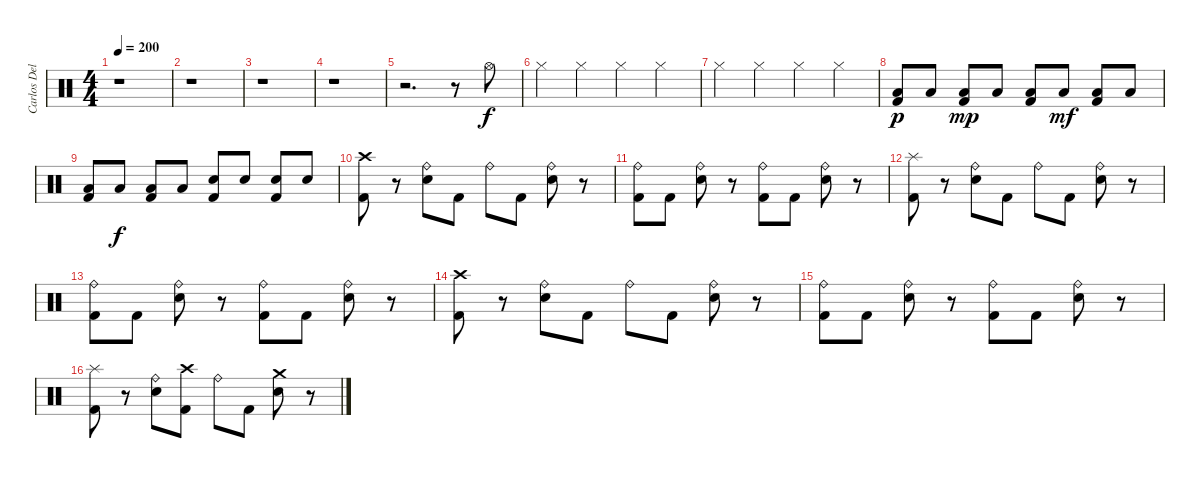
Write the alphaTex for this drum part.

\track ("Carlos Delgado" "Carlos Del") {instrument percussion}
\staff {score}
\articulation defaults
\ts (4 4)
\tempo 200
\clef neutral
\ks c
r.1{dy f} |
r.1 |
r.1 |
r.1 |
r.2{d} r.8 "Hi-Hat (open)".8 |
"Hi-Hat (closed)".4 "Hi-Hat (closed)".4 "Hi-Hat (closed)".4 "Hi-Hat (closed)".4 |
"Hi-Hat (closed)".4 "Hi-Hat (closed)".4 "Hi-Hat (closed)".4 "Hi-Hat (closed)".4 |
("Kick (hit) 2" "Low Floor Tom (hit)").8{dy p} "Low Floor Tom (hit)".8 ("Kick (hit) 2" "Low Floor Tom (hit)").8{dy mp} "Low Floor Tom (hit)".8 ("Kick (hit) 2" "Low Floor Tom (hit)").8 "Low Floor Tom (hit)".8{dy mf} ("Kick (hit) 2" "Low Floor Tom (hit)").8 "Low Floor Tom (hit)".8 |
("Kick (hit) 2" "Low Floor Tom (hit)").8 "Low Floor Tom (hit)".8{dy f} ("Kick (hit) 2" "Low Floor Tom (hit)").8 "Low Floor Tom (hit)".8 ("Kick (hit) 2" "Electric Snare (hit)").8 "Electric Snare (hit)".8 ("Kick (hit) 2" "Electric Snare (hit)").8 "Electric Snare (hit)".8 |
("Crash high (hit)" "Kick (hit) 2").8 r.8 ("Ride (bell)" "Electric Snare (hit)").8 "Kick (hit) 2".8 "Ride (bell)".8 "Kick (hit) 2".8 ("Electric Snare (hit)" "Ride (bell)").8 r.8 |
("Ride (bell)" "Kick (hit) 2").8 "Kick (hit) 2".8 ("Ride (bell)" "Electric Snare (hit)").8 r.8 ("Ride (bell)" "Kick (hit) 2").8 "Kick (hit) 2".8 ("Ride (bell)" "Electric Snare (hit)").8 r.8 |
("Splash (hit)" "Kick (hit) 2").8 r.8 ("Ride (bell)" "Electric Snare (hit)").8 "Kick (hit) 2".8 "Ride (bell)".8 "Kick (hit) 2".8 ("Electric Snare (hit)" "Ride (bell)").8 r.8 |
("Ride (bell)" "Kick (hit) 2").8 "Kick (hit) 2".8 ("Ride (bell)" "Electric Snare (hit)").8 r.8 ("Ride (bell)" "Kick (hit) 2").8 "Kick (hit) 2".8 ("Ride (bell)" "Electric Snare (hit)").8 r.8 |
("Crash high (hit)" "Kick (hit) 2").8 r.8 ("Ride (bell)" "Electric Snare (hit)").8 "Kick (hit) 2".8 "Ride (bell)".8 "Kick (hit) 2".8 ("Electric Snare (hit)" "Ride (bell)").8 r.8 |
("Ride (bell)" "Kick (hit) 2").8 "Kick (hit) 2".8 ("Ride (bell)" "Electric Snare (hit)").8 r.8 ("Ride (bell)" "Kick (hit) 2").8 "Kick (hit) 2".8 ("Ride (bell)" "Electric Snare (hit)").8 r.8 |
("Splash (hit)" "Kick (hit) 2").8 r.8 ("Ride (bell)" "Electric Snare (hit)").8 ("Crash high (hit)" "Kick (hit) 2").8 "Ride (bell)".8 "Kick (hit) 2".8 ("Electric Snare (hit)" "Crash medium (hit)").8 r.8
